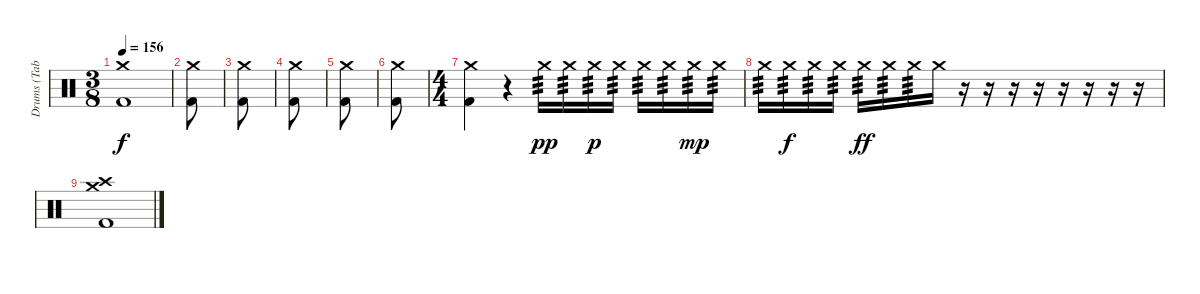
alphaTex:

\track ("Drums (Tab By Drumminger)" "Drums (Tab") {instrument percussion}
\staff {score}
\articulation defaults
\ts (3 8)
\tempo 156
\clef neutral
\ks c
("Crash medium (hit)" "Kick (hit) 2").1{dy f} |
("Crash medium (hit)" "Kick (hit) 2").8 |
("Crash medium (hit)" "Kick (hit) 2").8 |
("Crash medium (hit)" "Kick (hit) 2").8 |
("Crash medium (hit)" "Kick (hit) 2").8 |
("Crash medium (hit)" "Kick (hit) 2").8 |
\ts (4 4)
("Crash medium (hit)" "Kick (hit) 2").4 r.4 "Crash medium (hit)".16{tp 3 dy pp} "Crash medium (hit)".16{tp 3} "Crash medium (hit)".16{tp 3 dy p} "Crash medium (hit)".16{tp 3} "Crash medium (hit)".16{tp 3} "Crash medium (hit)".16{tp 3} "Crash medium (hit)".16{tp 3 dy mp} "Crash medium (hit)".16{tp 3} |
"Crash medium (hit)".16{tp 3} "Crash medium (hit)".16{tp 3 dy f} "Crash medium (hit)".16{tp 3} "Crash medium (hit)".16{tp 3} "Crash medium (hit)".16{tp 3 dy ff} "Crash medium (hit)".16{tp 3} "Crash medium (hit)".16{tp 3} "Crash medium (hit)".16 r.16 r.16 r.16 r.16 r.16 r.16 r.16 r.16 |
("Crash medium (hit)" "Crash high (hit)" "Kick (hit) 2").1
